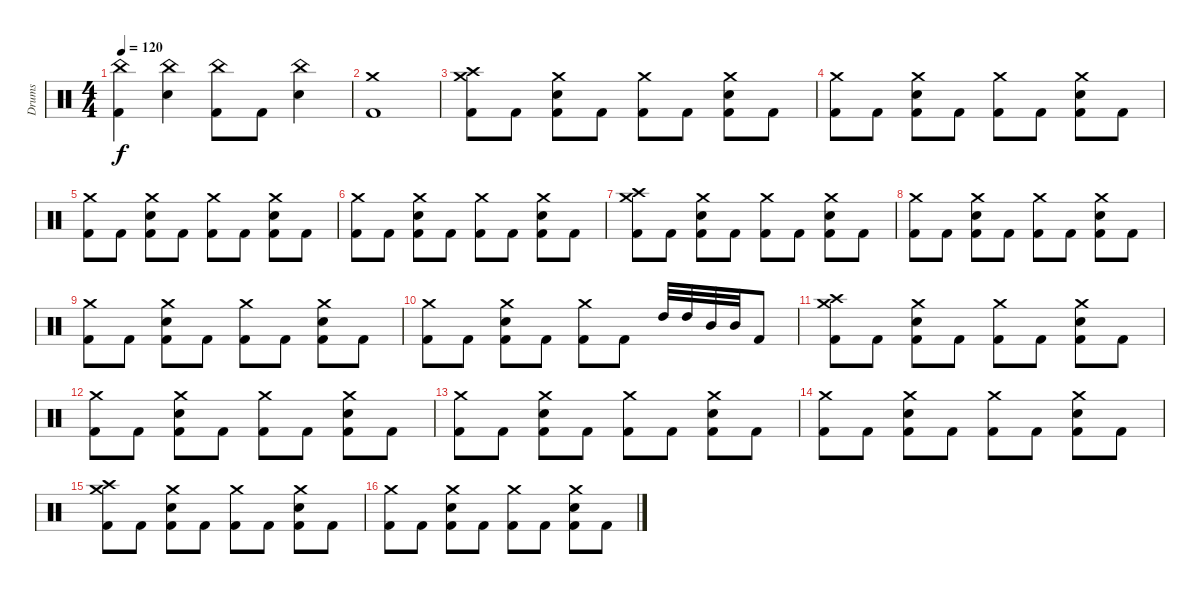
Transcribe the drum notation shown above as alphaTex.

\track ("Drums" "Drums") {instrument percussion}
\staff {score}
\articulation defaults
\ts (4 4)
\tempo 120
\clef neutral
\ks c
("Kick (hit) 2" "China (hit)").4{dy f} ("Snare (hit) 2" "China (hit)").4 ("Kick (hit) 2" "China (hit)").8 "Kick (hit) 2".8 ("Snare (hit) 2" "China (hit)").4 |
("Kick (hit) 2" "Crash medium (hit)").1 |
("Kick (hit) 2" "Crash high (hit)" "Crash medium (hit)").8 "Kick (hit) 2".8 ("Kick (hit) 2" "Snare (hit) 2" "Crash medium (hit)").8 "Kick (hit) 2".8 ("Kick (hit) 2" "Crash medium (hit)").8 "Kick (hit) 2".8 ("Kick (hit) 2" "Snare (hit) 2" "Crash medium (hit)").8 "Kick (hit) 2".8 |
("Kick (hit) 2" "Crash medium (hit)").8 "Kick (hit) 2".8 ("Kick (hit) 2" "Snare (hit) 2" "Crash medium (hit)").8 "Kick (hit) 2".8 ("Kick (hit) 2" "Crash medium (hit)").8 "Kick (hit) 2".8 ("Kick (hit) 2" "Snare (hit) 2" "Crash medium (hit)").8 "Kick (hit) 2".8 |
("Kick (hit) 2" "Crash medium (hit)").8 "Kick (hit) 2".8 ("Kick (hit) 2" "Snare (hit) 2" "Crash medium (hit)").8 "Kick (hit) 2".8 ("Kick (hit) 2" "Crash medium (hit)").8 "Kick (hit) 2".8 ("Kick (hit) 2" "Snare (hit) 2" "Crash medium (hit)").8 "Kick (hit) 2".8 |
("Kick (hit) 2" "Crash medium (hit)").8 "Kick (hit) 2".8 ("Kick (hit) 2" "Snare (hit) 2" "Crash medium (hit)").8 "Kick (hit) 2".8 ("Kick (hit) 2" "Crash medium (hit)").8 "Kick (hit) 2".8 ("Kick (hit) 2" "Snare (hit) 2" "Crash medium (hit)").8 "Kick (hit) 2".8 |
("Kick (hit) 2" "Crash high (hit)" "Crash medium (hit)").8 "Kick (hit) 2".8 ("Kick (hit) 2" "Snare (hit) 2" "Crash medium (hit)").8 "Kick (hit) 2".8 ("Kick (hit) 2" "Crash medium (hit)").8 "Kick (hit) 2".8 ("Kick (hit) 2" "Snare (hit) 2" "Crash medium (hit)").8 "Kick (hit) 2".8 |
("Kick (hit) 2" "Crash medium (hit)").8 "Kick (hit) 2".8 ("Kick (hit) 2" "Snare (hit) 2" "Crash medium (hit)").8 "Kick (hit) 2".8 ("Kick (hit) 2" "Crash medium (hit)").8 "Kick (hit) 2".8 ("Kick (hit) 2" "Snare (hit) 2" "Crash medium (hit)").8 "Kick (hit) 2".8 |
("Kick (hit) 2" "Crash medium (hit)").8 "Kick (hit) 2".8 ("Kick (hit) 2" "Snare (hit) 2" "Crash medium (hit)").8 "Kick (hit) 2".8 ("Kick (hit) 2" "Crash medium (hit)").8 "Kick (hit) 2".8 ("Kick (hit) 2" "Snare (hit) 2" "Crash medium (hit)").8 "Kick (hit) 2".8 |
("Kick (hit) 2" "Crash medium (hit)").8 "Kick (hit) 2".8 ("Kick (hit) 2" "Snare (hit) 2" "Crash medium (hit)").8 "Kick (hit) 2".8 ("Kick (hit) 2" "Crash medium (hit)").8 "Kick (hit) 2".8 "High Tom (hit)".32 "High Tom (hit)".32 "Mid Tom (hit)".32 "Mid Tom (hit)".32 "Kick (hit) 2".8 |
("Kick (hit) 2" "Crash high (hit)" "Crash medium (hit)").8 "Kick (hit) 2".8 ("Kick (hit) 2" "Snare (hit) 2" "Crash medium (hit)").8 "Kick (hit) 2".8 ("Kick (hit) 2" "Crash medium (hit)").8 "Kick (hit) 2".8 ("Kick (hit) 2" "Snare (hit) 2" "Crash medium (hit)").8 "Kick (hit) 2".8 |
("Kick (hit) 2" "Crash medium (hit)").8 "Kick (hit) 2".8 ("Kick (hit) 2" "Snare (hit) 2" "Crash medium (hit)").8 "Kick (hit) 2".8 ("Kick (hit) 2" "Crash medium (hit)").8 "Kick (hit) 2".8 ("Kick (hit) 2" "Snare (hit) 2" "Crash medium (hit)").8 "Kick (hit) 2".8 |
("Kick (hit) 2" "Crash medium (hit)").8 "Kick (hit) 2".8 ("Kick (hit) 2" "Snare (hit) 2" "Crash medium (hit)").8 "Kick (hit) 2".8 ("Kick (hit) 2" "Crash medium (hit)").8 "Kick (hit) 2".8 ("Kick (hit) 2" "Snare (hit) 2" "Crash medium (hit)").8 "Kick (hit) 2".8 |
("Kick (hit) 2" "Crash medium (hit)").8 "Kick (hit) 2".8 ("Kick (hit) 2" "Snare (hit) 2" "Crash medium (hit)").8 "Kick (hit) 2".8 ("Kick (hit) 2" "Crash medium (hit)").8 "Kick (hit) 2".8 ("Kick (hit) 2" "Snare (hit) 2" "Crash medium (hit)").8 "Kick (hit) 2".8 |
("Kick (hit) 2" "Crash high (hit)" "Crash medium (hit)").8 "Kick (hit) 2".8 ("Kick (hit) 2" "Snare (hit) 2" "Crash medium (hit)").8 "Kick (hit) 2".8 ("Kick (hit) 2" "Crash medium (hit)").8 "Kick (hit) 2".8 ("Kick (hit) 2" "Snare (hit) 2" "Crash medium (hit)").8 "Kick (hit) 2".8 |
("Kick (hit) 2" "Crash medium (hit)").8 "Kick (hit) 2".8 ("Kick (hit) 2" "Snare (hit) 2" "Crash medium (hit)").8 "Kick (hit) 2".8 ("Kick (hit) 2" "Crash medium (hit)").8 "Kick (hit) 2".8 ("Kick (hit) 2" "Snare (hit) 2" "Crash medium (hit)").8 "Kick (hit) 2".8
